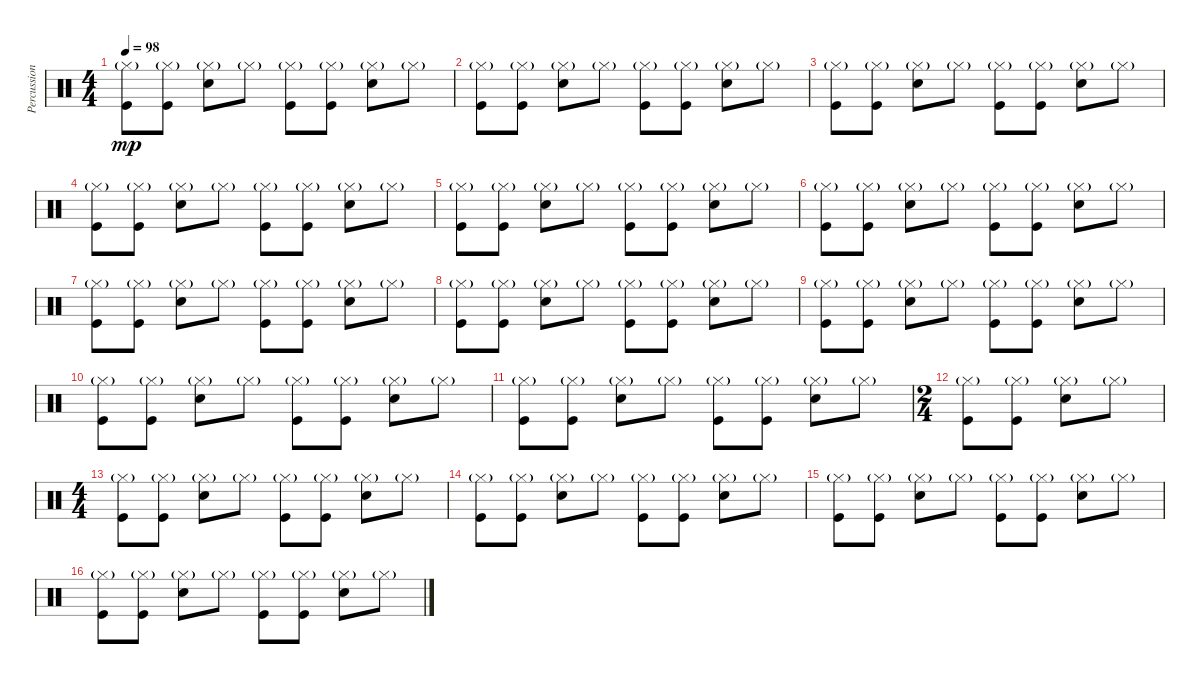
\track ("Percussions" "Percussion") {instrument percussion}
\staff {score}
\articulation defaults
\ts (4 4)
\tempo 98
\clef neutral
\ks c
("Hi-Hat (closed)"{g} "Kick (hit)").8{dy mp} ("Hi-Hat (closed)"{g} "Kick (hit)").8 ("Hi-Hat (closed)"{g} "Snare (hit) 2").8 "Hi-Hat (closed)"{g}.8 ("Hi-Hat (closed)"{g} "Kick (hit)").8 ("Hi-Hat (closed)"{g} "Kick (hit)").8 ("Hi-Hat (closed)"{g} "Snare (hit) 2").8 "Hi-Hat (closed)"{g}.8 |
("Hi-Hat (closed)"{g} "Kick (hit)").8 ("Hi-Hat (closed)"{g} "Kick (hit)").8 ("Hi-Hat (closed)"{g} "Snare (hit) 2").8 "Hi-Hat (closed)"{g}.8 ("Hi-Hat (closed)"{g} "Kick (hit)").8 ("Hi-Hat (closed)"{g} "Kick (hit)").8 ("Hi-Hat (closed)"{g} "Snare (hit) 2").8 "Hi-Hat (closed)"{g}.8 |
("Hi-Hat (closed)"{g} "Kick (hit)").8 ("Hi-Hat (closed)"{g} "Kick (hit)").8 ("Hi-Hat (closed)"{g} "Snare (hit) 2").8 "Hi-Hat (closed)"{g}.8 ("Hi-Hat (closed)"{g} "Kick (hit)").8 ("Hi-Hat (closed)"{g} "Kick (hit)").8 ("Hi-Hat (closed)"{g} "Snare (hit) 2").8 "Hi-Hat (closed)"{g}.8 |
("Hi-Hat (closed)"{g} "Kick (hit)").8 ("Hi-Hat (closed)"{g} "Kick (hit)").8 ("Hi-Hat (closed)"{g} "Snare (hit) 2").8 "Hi-Hat (closed)"{g}.8 ("Hi-Hat (closed)"{g} "Kick (hit)").8 ("Hi-Hat (closed)"{g} "Kick (hit)").8 ("Hi-Hat (closed)"{g} "Snare (hit) 2").8 "Hi-Hat (closed)"{g}.8 |
("Hi-Hat (closed)"{g} "Kick (hit)").8 ("Hi-Hat (closed)"{g} "Kick (hit)").8 ("Hi-Hat (closed)"{g} "Snare (hit) 2").8 "Hi-Hat (closed)"{g}.8 ("Hi-Hat (closed)"{g} "Kick (hit)").8 ("Hi-Hat (closed)"{g} "Kick (hit)").8 ("Hi-Hat (closed)"{g} "Snare (hit) 2").8 "Hi-Hat (closed)"{g}.8 |
("Hi-Hat (closed)"{g} "Kick (hit)").8 ("Hi-Hat (closed)"{g} "Kick (hit)").8 ("Hi-Hat (closed)"{g} "Snare (hit) 2").8 "Hi-Hat (closed)"{g}.8 ("Hi-Hat (closed)"{g} "Kick (hit)").8 ("Hi-Hat (closed)"{g} "Kick (hit)").8 ("Hi-Hat (closed)"{g} "Snare (hit) 2").8 "Hi-Hat (closed)"{g}.8 |
("Hi-Hat (closed)"{g} "Kick (hit)").8 ("Hi-Hat (closed)"{g} "Kick (hit)").8 ("Hi-Hat (closed)"{g} "Snare (hit) 2").8 "Hi-Hat (closed)"{g}.8 ("Hi-Hat (closed)"{g} "Kick (hit)").8 ("Hi-Hat (closed)"{g} "Kick (hit)").8 ("Hi-Hat (closed)"{g} "Snare (hit) 2").8 "Hi-Hat (closed)"{g}.8 |
("Hi-Hat (closed)"{g} "Kick (hit)").8 ("Hi-Hat (closed)"{g} "Kick (hit)").8 ("Hi-Hat (closed)"{g} "Snare (hit) 2").8 "Hi-Hat (closed)"{g}.8 ("Hi-Hat (closed)"{g} "Kick (hit)").8 ("Hi-Hat (closed)"{g} "Kick (hit)").8 ("Hi-Hat (closed)"{g} "Snare (hit) 2").8 "Hi-Hat (closed)"{g}.8 |
("Hi-Hat (closed)"{g} "Kick (hit)").8 ("Hi-Hat (closed)"{g} "Kick (hit)").8 ("Hi-Hat (closed)"{g} "Snare (hit) 2").8 "Hi-Hat (closed)"{g}.8 ("Hi-Hat (closed)"{g} "Kick (hit)").8 ("Hi-Hat (closed)"{g} "Kick (hit)").8 ("Hi-Hat (closed)"{g} "Snare (hit) 2").8 "Hi-Hat (closed)"{g}.8 |
("Hi-Hat (closed)"{g} "Kick (hit)").8 ("Hi-Hat (closed)"{g} "Kick (hit)").8 ("Hi-Hat (closed)"{g} "Snare (hit) 2").8 "Hi-Hat (closed)"{g}.8 ("Hi-Hat (closed)"{g} "Kick (hit)").8 ("Hi-Hat (closed)"{g} "Kick (hit)").8 ("Hi-Hat (closed)"{g} "Snare (hit) 2").8 "Hi-Hat (closed)"{g}.8 |
("Hi-Hat (closed)"{g} "Kick (hit)").8 ("Hi-Hat (closed)"{g} "Kick (hit)").8 ("Hi-Hat (closed)"{g} "Snare (hit) 2").8 "Hi-Hat (closed)"{g}.8 ("Hi-Hat (closed)"{g} "Kick (hit)").8 ("Hi-Hat (closed)"{g} "Kick (hit)").8 ("Hi-Hat (closed)"{g} "Snare (hit) 2").8 "Hi-Hat (closed)"{g}.8 |
\ts (2 4)
("Hi-Hat (closed)"{g} "Kick (hit)").8 ("Hi-Hat (closed)"{g} "Kick (hit)").8 ("Hi-Hat (closed)"{g} "Snare (hit) 2").8 "Hi-Hat (closed)"{g}.8 |
\ts (4 4)
("Hi-Hat (closed)"{g} "Kick (hit)").8 ("Hi-Hat (closed)"{g} "Kick (hit)").8 ("Hi-Hat (closed)"{g} "Snare (hit) 2").8 "Hi-Hat (closed)"{g}.8 ("Hi-Hat (closed)"{g} "Kick (hit)").8 ("Hi-Hat (closed)"{g} "Kick (hit)").8 ("Hi-Hat (closed)"{g} "Snare (hit) 2").8 "Hi-Hat (closed)"{g}.8 |
("Hi-Hat (closed)"{g} "Kick (hit)").8 ("Hi-Hat (closed)"{g} "Kick (hit)").8 ("Hi-Hat (closed)"{g} "Snare (hit) 2").8 "Hi-Hat (closed)"{g}.8 ("Hi-Hat (closed)"{g} "Kick (hit)").8 ("Hi-Hat (closed)"{g} "Kick (hit)").8 ("Hi-Hat (closed)"{g} "Snare (hit) 2").8 "Hi-Hat (closed)"{g}.8 |
("Hi-Hat (closed)"{g} "Kick (hit)").8 ("Hi-Hat (closed)"{g} "Kick (hit)").8 ("Hi-Hat (closed)"{g} "Snare (hit) 2").8 "Hi-Hat (closed)"{g}.8 ("Hi-Hat (closed)"{g} "Kick (hit)").8 ("Hi-Hat (closed)"{g} "Kick (hit)").8 ("Hi-Hat (closed)"{g} "Snare (hit) 2").8 "Hi-Hat (closed)"{g}.8 |
("Hi-Hat (closed)"{g} "Kick (hit)").8 ("Hi-Hat (closed)"{g} "Kick (hit)").8 ("Hi-Hat (closed)"{g} "Snare (hit) 2").8 "Hi-Hat (closed)"{g}.8 ("Hi-Hat (closed)"{g} "Kick (hit)").8 ("Hi-Hat (closed)"{g} "Kick (hit)").8 ("Hi-Hat (closed)"{g} "Snare (hit) 2").8 "Hi-Hat (closed)"{g}.8
